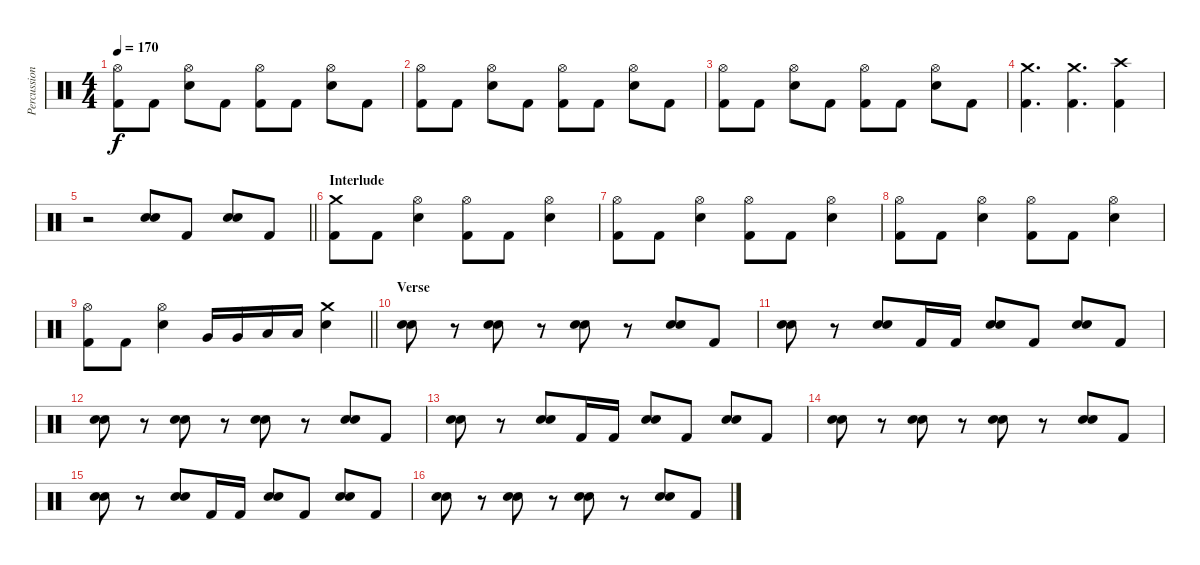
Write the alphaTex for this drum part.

\track ("Percussions" "Percussion") {instrument percussion}
\staff {score}
\articulation defaults
\ts (4 4)
\tempo 170
\clef neutral
\ks c
("Hi-Hat (open)" "Kick (hit) 2").8{dy f} "Kick (hit) 2".8 ("Hi-Hat (open)" "Electric Snare (hit)").8 "Kick (hit) 2".8 ("Hi-Hat (open)" "Kick (hit) 2").8 "Kick (hit) 2".8 ("Hi-Hat (open)" "Electric Snare (hit)").8 "Kick (hit) 2".8 |
("Hi-Hat (open)" "Kick (hit) 2").8 "Kick (hit) 2".8 ("Hi-Hat (open)" "Electric Snare (hit)").8 "Kick (hit) 2".8 ("Hi-Hat (open)" "Kick (hit) 2").8 "Kick (hit) 2".8 ("Hi-Hat (open)" "Electric Snare (hit)").8 "Kick (hit) 2".8 |
("Hi-Hat (open)" "Kick (hit) 2").8 "Kick (hit) 2".8 ("Hi-Hat (open)" "Electric Snare (hit)").8 "Kick (hit) 2".8 ("Hi-Hat (open)" "Kick (hit) 2").8 "Kick (hit) 2".8 ("Hi-Hat (open)" "Electric Snare (hit)").8 "Kick (hit) 2".8 |
("Crash medium (hit)" "Kick (hit) 2").4{d} ("Crash medium (hit)" "Kick (hit) 2").4{d} ("Crash high (hit)" "Kick (hit) 2").4 |
\barLineRight lightlight
r.2 ("Electric Snare (hit)" "Electric Snare (hit)").8 "Kick (hit) 2".8 ("Electric Snare (hit)" "Electric Snare (hit)").8 "Kick (hit) 2".8 |
\section ("" "Interlude")
("Crash medium (hit)" "Kick (hit) 2").8 "Kick (hit) 2".8 ("Hi-Hat (open)" "Electric Snare (hit)").4 ("Hi-Hat (open)" "Kick (hit) 2").8 "Kick (hit) 2".8 ("Hi-Hat (open)" "Electric Snare (hit)").4 |
("Hi-Hat (open)" "Kick (hit) 2").8 "Kick (hit) 2".8 ("Hi-Hat (open)" "Electric Snare (hit)").4 ("Hi-Hat (open)" "Kick (hit) 2").8 "Kick (hit) 2".8 ("Hi-Hat (open)" "Electric Snare (hit)").4 |
("Hi-Hat (open)" "Kick (hit) 2").8 "Kick (hit) 2".8 ("Hi-Hat (open)" "Electric Snare (hit)").4 ("Hi-Hat (open)" "Kick (hit) 2").8 "Kick (hit) 2".8 ("Hi-Hat (open)" "Electric Snare (hit)").4 |
\barLineRight lightlight
("Hi-Hat (open)" "Kick (hit) 2").8 "Kick (hit) 2".8 ("Hi-Hat (open)" "Electric Snare (hit)").4 "Very Low Tom (hit)".16 "Very Low Tom (hit)".16 "Low Floor Tom (hit)".16 "Low Floor Tom (hit)".16 ("Crash medium (hit)" "Electric Snare (hit)").4 |
\section ("" "Verse")
("Snare (hit) 2" "Snare (hit) 2").8 r.8 ("Snare (hit) 2" "Snare (hit) 2").8 r.8 ("Snare (hit) 2" "Snare (hit) 2").8 r.8 ("Snare (hit) 2" "Snare (hit) 2").8 "Kick (hit) 2".8 |
("Snare (hit) 2" "Snare (hit) 2").8 r.8 ("Snare (hit) 2" "Snare (hit) 2").8 "Kick (hit) 2".16 "Kick (hit) 2".16 ("Snare (hit) 2" "Snare (hit) 2").8 "Kick (hit) 2".8 ("Snare (hit) 2" "Snare (hit) 2").8 "Kick (hit) 2".8 |
("Snare (hit) 2" "Snare (hit) 2").8 r.8 ("Snare (hit) 2" "Snare (hit) 2").8 r.8 ("Snare (hit) 2" "Snare (hit) 2").8 r.8 ("Snare (hit) 2" "Snare (hit) 2").8 "Kick (hit) 2".8 |
("Snare (hit) 2" "Snare (hit) 2").8 r.8 ("Snare (hit) 2" "Snare (hit) 2").8 "Kick (hit) 2".16 "Kick (hit) 2".16 ("Snare (hit) 2" "Snare (hit) 2").8 "Kick (hit) 2".8 ("Snare (hit) 2" "Snare (hit) 2").8 "Kick (hit) 2".8 |
("Snare (hit) 2" "Snare (hit) 2").8 r.8 ("Snare (hit) 2" "Snare (hit) 2").8 r.8 ("Snare (hit) 2" "Snare (hit) 2").8 r.8 ("Snare (hit) 2" "Snare (hit) 2").8 "Kick (hit) 2".8 |
("Snare (hit) 2" "Snare (hit) 2").8 r.8 ("Snare (hit) 2" "Snare (hit) 2").8 "Kick (hit) 2".16 "Kick (hit) 2".16 ("Snare (hit) 2" "Snare (hit) 2").8 "Kick (hit) 2".8 ("Snare (hit) 2" "Snare (hit) 2").8 "Kick (hit) 2".8 |
("Snare (hit) 2" "Snare (hit) 2").8 r.8 ("Snare (hit) 2" "Snare (hit) 2").8 r.8 ("Snare (hit) 2" "Snare (hit) 2").8 r.8 ("Snare (hit) 2" "Snare (hit) 2").8 "Kick (hit) 2".8
